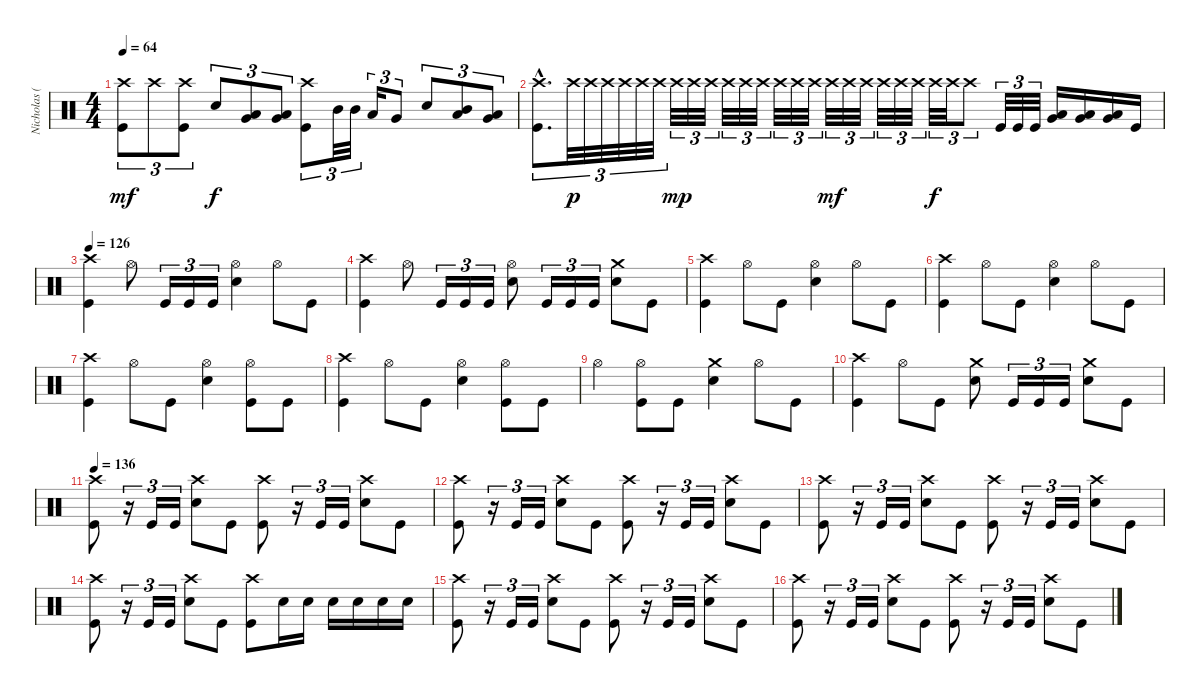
\track ("Nicholas (Drums)" "Nicholas (") {instrument percussion}
\staff {score}
\articulation defaults
\ts (4 4)
\tempo 64
\clef neutral
\ks c
("Crash high (hit)" "Kick (hit)").8{tu (3 2) dy mf} "Crash high (hit)".8{tu (3 2)} ("Crash high (hit)" "Kick (hit)").8{tu (3 2)} "Electric Snare (hit)".8{tu (3 2) dy f} ("Low Tom (hit)" "Very Low Tom (hit)").8{tu (3 2) bu 60} ("Low Tom (hit)" "Very Low Tom (hit)").8{tu (3 2) bu 60} ("Crash high (hit)" "Kick (hit)").8{tu (3 2)} "Mid Tom (hit)".32{tu (3 2)} "Mid Tom (hit)".32{tu (3 2)} "Low Tom (hit)".16{tu (3 2)} "Very Low Tom (hit)".8{tu (3 2)} "Electric Snare (hit)".8{tu (3 2)} ("Mid Tom (hit)" "Low Tom (hit)").8{tu (3 2) bu 60} ("Low Tom (hit)" "Very Low Tom (hit)").8{tu (3 2) bu 60} |
("Crash high (hit)"{hac} "Kick (hit)"{hac}).8{d tu (3 2)} "Crash high (hit)".32{tu (3 2) dy p} "Crash high (hit)".32{tu (3 2)} "Crash high (hit)".32{tu (3 2)} "Crash high (hit)".32{tu (3 2)} "Crash high (hit)".32{tu (3 2)} "Crash high (hit)".32{tu (3 2)} "Crash high (hit)".32{tu (3 2) dy mp} "Crash high (hit)".32{tu (3 2)} "Crash high (hit)".32{tu (3 2)} "Crash high (hit)".32{tu (3 2)} "Crash high (hit)".32{tu (3 2)} "Crash high (hit)".32{tu (3 2)} "Crash high (hit)".32{tu (3 2)} "Crash high (hit)".32{tu (3 2)} "Crash high (hit)".32{tu (3 2)} "Crash high (hit)".32{tu (3 2) dy mf} "Crash high (hit)".32{tu (3 2)} "Crash high (hit)".32{tu (3 2)} "Crash high (hit)".32{tu (3 2)} "Crash high (hit)".32{tu (3 2)} "Crash high (hit)".32{tu (3 2)} "Crash high (hit)".32{tu (3 2) dy f} "Crash high (hit)".32{tu (3 2)} "Crash high (hit)".8{tu (3 2)} "Kick (hit)".32{tu (3 2)} "Kick (hit)".32{tu (3 2)} "Kick (hit)".32{tu (3 2)} ("Low Tom (hit)" "Very Low Tom (hit)").16 ("Low Tom (hit)" "Very Low Tom (hit)").16 ("Low Tom (hit)" "Very Low Tom (hit)").16 "Kick (hit)".16 |
\tempo 126
("Crash high (hit)" "Kick (hit)").4 "Hi-Hat (open)".8 "Kick (hit)".16{tu (3 2)} "Kick (hit)".16{tu (3 2)} "Kick (hit)".16{tu (3 2)} ("Hi-Hat (open)" "Electric Snare (hit)").4 "Hi-Hat (open)".8 "Kick (hit)".8 |
("Crash high (hit)" "Kick (hit)").4 "Hi-Hat (open)".8 "Kick (hit)".16{tu (3 2)} "Kick (hit)".16{tu (3 2)} "Kick (hit)".16{tu (3 2)} ("Hi-Hat (open)" "Electric Snare (hit)").8 "Kick (hit)".16{tu (3 2)} "Kick (hit)".16{tu (3 2)} "Kick (hit)".16{tu (3 2)} ("Crash medium (hit)" "Electric Snare (hit)").8 "Kick (hit)".8 |
("Crash high (hit)" "Kick (hit)").4 "Hi-Hat (open)".8 "Kick (hit)".8 ("Hi-Hat (open)" "Electric Snare (hit)").4 "Hi-Hat (open)".8 "Kick (hit)".8 |
("Crash high (hit)" "Kick (hit)").4 "Hi-Hat (open)".8 "Kick (hit)".8 ("Hi-Hat (open)" "Electric Snare (hit)").4 "Hi-Hat (open)".8 "Kick (hit)".8 |
("Crash high (hit)" "Kick (hit)").4 "Hi-Hat (open)".8 "Kick (hit)".8 ("Hi-Hat (open)" "Electric Snare (hit)").4 ("Hi-Hat (open)" "Kick (hit)").8 "Kick (hit)".8 |
("Crash high (hit)" "Kick (hit)").4 "Hi-Hat (open)".8 "Kick (hit)".8 ("Hi-Hat (open)" "Electric Snare (hit)").4 ("Hi-Hat (open)" "Kick (hit)").8 "Kick (hit)".8 |
"Hi-Hat (open)".4 ("Hi-Hat (open)" "Kick (hit)").8 "Kick (hit)".8 ("Crash medium (hit)" "Electric Snare (hit)").4 "Hi-Hat (open)".8 "Kick (hit)".8 |
("Crash high (hit)" "Kick (hit)").4 "Hi-Hat (open)".8 "Kick (hit)".8 ("Crash medium (hit)" "Electric Snare (hit)").8 "Kick (hit)".16{tu (3 2)} "Kick (hit)".16{tu (3 2)} "Kick (hit)".16{tu (3 2)} ("Crash medium (hit)" "Electric Snare (hit)").8 "Kick (hit)".8 |
\tempo 136
("Crash high (hit)" "Kick (hit)").8 r.16{tu (3 2)} "Kick (hit)".16{tu (3 2)} "Kick (hit)".16{tu (3 2)} ("Crash high (hit)" "Electric Snare (hit)").8 "Kick (hit)".8 ("Crash high (hit)" "Kick (hit)").8 r.16{tu (3 2)} "Kick (hit)".16{tu (3 2)} "Kick (hit)".16{tu (3 2)} ("Crash high (hit)" "Electric Snare (hit)").8 "Kick (hit)".8 |
("Crash high (hit)" "Kick (hit)").8 r.16{tu (3 2)} "Kick (hit)".16{tu (3 2)} "Kick (hit)".16{tu (3 2)} ("Crash high (hit)" "Electric Snare (hit)").8 "Kick (hit)".8 ("Crash high (hit)" "Kick (hit)").8 r.16{tu (3 2)} "Kick (hit)".16{tu (3 2)} "Kick (hit)".16{tu (3 2)} ("Crash high (hit)" "Electric Snare (hit)").8 "Kick (hit)".8 |
("Crash high (hit)" "Kick (hit)").8 r.16{tu (3 2)} "Kick (hit)".16{tu (3 2)} "Kick (hit)".16{tu (3 2)} ("Crash high (hit)" "Electric Snare (hit)").8 "Kick (hit)".8 ("Crash high (hit)" "Kick (hit)").8 r.16{tu (3 2)} "Kick (hit)".16{tu (3 2)} "Kick (hit)".16{tu (3 2)} ("Crash high (hit)" "Electric Snare (hit)").8 "Kick (hit)".8 |
("Crash high (hit)" "Kick (hit)").8 r.16{tu (3 2)} "Kick (hit)".16{tu (3 2)} "Kick (hit)".16{tu (3 2)} ("Crash high (hit)" "Electric Snare (hit)").8 "Kick (hit)".8 ("Crash high (hit)" "Kick (hit)").8 "Electric Snare (hit)".16 "Electric Snare (hit)".16 "Electric Snare (hit)".16 "Electric Snare (hit)".16 "Electric Snare (hit)".16 "Electric Snare (hit)".16 |
("Crash high (hit)" "Kick (hit)").8 r.16{tu (3 2)} "Kick (hit)".16{tu (3 2)} "Kick (hit)".16{tu (3 2)} ("Crash high (hit)" "Electric Snare (hit)").8 "Kick (hit)".8 ("Crash high (hit)" "Kick (hit)").8 r.16{tu (3 2)} "Kick (hit)".16{tu (3 2)} "Kick (hit)".16{tu (3 2)} ("Crash high (hit)" "Electric Snare (hit)").8 "Kick (hit)".8 |
("Crash high (hit)" "Kick (hit)").8 r.16{tu (3 2)} "Kick (hit)".16{tu (3 2)} "Kick (hit)".16{tu (3 2)} ("Crash high (hit)" "Electric Snare (hit)").8 "Kick (hit)".8 ("Crash high (hit)" "Kick (hit)").8 r.16{tu (3 2)} "Kick (hit)".16{tu (3 2)} "Kick (hit)".16{tu (3 2)} ("Crash high (hit)" "Electric Snare (hit)").8 "Kick (hit)".8
